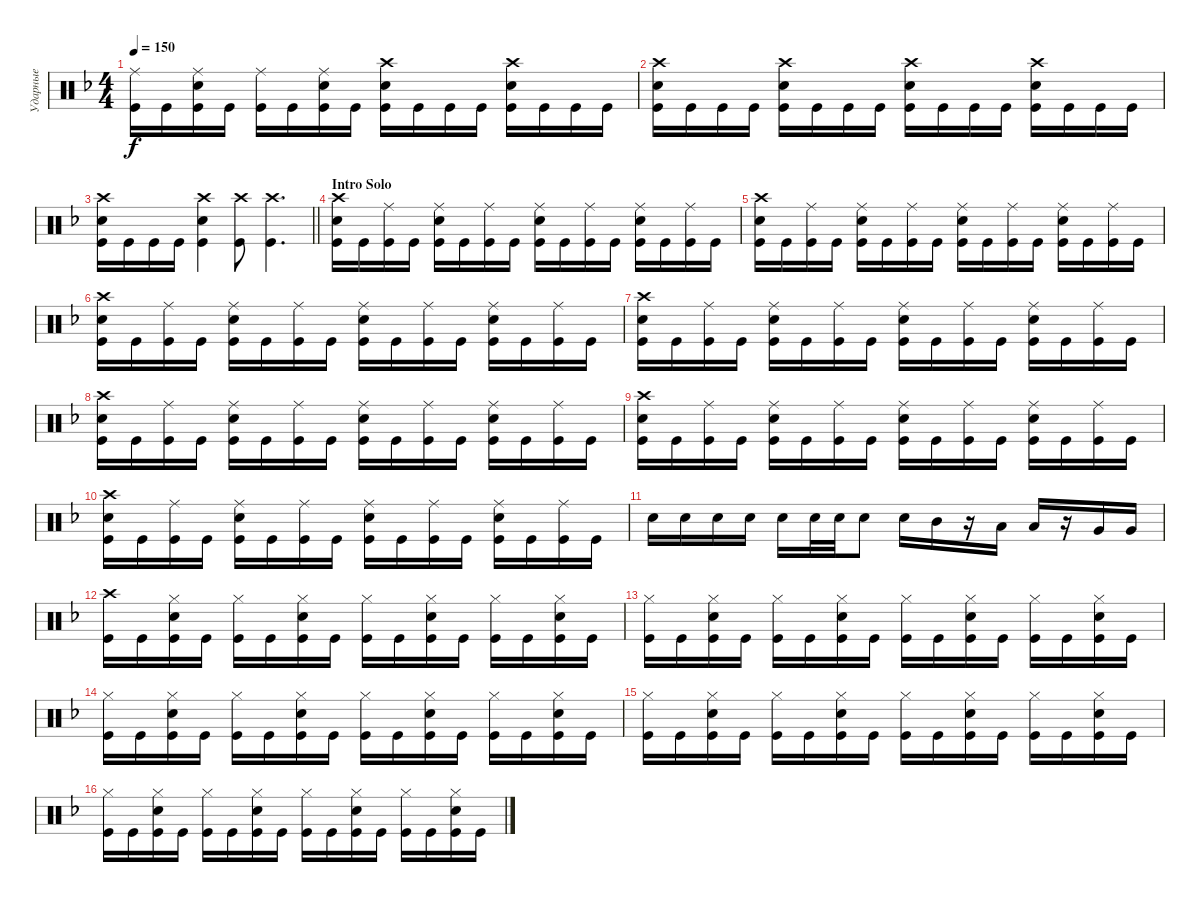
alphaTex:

\track ("Ударные" "Ударные") {instrument percussion}
\staff {score}
\articulation defaults
\ts (4 4)
\tempo 150
\clef neutral
\ks dminor
("Kick (hit)" "Ride (middle)").16{dy f} "Kick (hit)".16 ("Kick (hit)" "Snare (hit) 2" "Ride (middle)").16 "Kick (hit)".16 ("Kick (hit)" "Ride (middle)").16 "Kick (hit)".16 ("Kick (hit)" "Snare (hit) 2" "Ride (middle)").16 "Kick (hit)".16 ("Kick (hit)" "Snare (hit) 2" "Crash high (hit)").16 "Kick (hit)".16 "Kick (hit)".16 "Kick (hit)".16 ("Kick (hit)" "Crash high (hit)" "Snare (hit) 2").16 "Kick (hit)".16 "Kick (hit)".16 "Kick (hit)".16 |
("Kick (hit)" "Snare (hit) 2" "Crash high (hit)").16 "Kick (hit)".16 "Kick (hit)".16 "Kick (hit)".16 ("Kick (hit)" "Crash high (hit)" "Snare (hit) 2").16 "Kick (hit)".16 "Kick (hit)".16 "Kick (hit)".16 ("Kick (hit)" "Snare (hit) 2" "Crash high (hit)").16 "Kick (hit)".16 "Kick (hit)".16 "Kick (hit)".16 ("Kick (hit)" "Crash high (hit)" "Snare (hit) 2").16 "Kick (hit)".16 "Kick (hit)".16 "Kick (hit)".16 |
\barLineRight lightlight
("Kick (hit)" "Snare (hit) 2" "Crash high (hit)").16 "Kick (hit)".16 "Kick (hit)".16 "Kick (hit)".16 ("Kick (hit)" "Crash high (hit)" "Snare (hit) 2").4 ("Kick (hit)" "Crash high (hit)").8 ("Kick (hit)" "Crash high (hit)").4{d} |
\section ("" "Intro Solo")
("Kick (hit)" "Snare (hit) 2" "Crash high (hit)").16 "Kick (hit)".16 ("Ride (middle)" "Kick (hit)").16 "Kick (hit)".16 ("Kick (hit)" "Ride (middle)" "Snare (hit) 2").16 "Kick (hit)".16 ("Kick (hit)" "Ride (middle)").16 "Kick (hit)".16 ("Kick (hit)" "Snare (hit) 2" "Ride (middle)").16 "Kick (hit)".16 ("Ride (middle)" "Kick (hit)").16 "Kick (hit)".16 ("Kick (hit)" "Ride (middle)" "Snare (hit) 2").16 "Kick (hit)".16 ("Kick (hit)" "Ride (middle)").16 "Kick (hit)".16 |
("Kick (hit)" "Snare (hit) 2" "Crash high (hit)").16 "Kick (hit)".16 ("Ride (middle)" "Kick (hit)").16 "Kick (hit)".16 ("Kick (hit)" "Ride (middle)" "Snare (hit) 2").16 "Kick (hit)".16 ("Kick (hit)" "Ride (middle)").16 "Kick (hit)".16 ("Kick (hit)" "Snare (hit) 2" "Ride (middle)").16 "Kick (hit)".16 ("Ride (middle)" "Kick (hit)").16 "Kick (hit)".16 ("Kick (hit)" "Ride (middle)" "Snare (hit) 2").16 "Kick (hit)".16 ("Kick (hit)" "Ride (middle)").16 "Kick (hit)".16 |
("Kick (hit)" "Snare (hit) 2" "Crash high (hit)").16 "Kick (hit)".16 ("Ride (middle)" "Kick (hit)").16 "Kick (hit)".16 ("Kick (hit)" "Ride (middle)" "Snare (hit) 2").16 "Kick (hit)".16 ("Kick (hit)" "Ride (middle)").16 "Kick (hit)".16 ("Kick (hit)" "Snare (hit) 2" "Ride (middle)").16 "Kick (hit)".16 ("Ride (middle)" "Kick (hit)").16 "Kick (hit)".16 ("Kick (hit)" "Ride (middle)" "Snare (hit) 2").16 "Kick (hit)".16 ("Kick (hit)" "Ride (middle)").16 "Kick (hit)".16 |
("Kick (hit)" "Snare (hit) 2" "Crash high (hit)").16 "Kick (hit)".16 ("Ride (middle)" "Kick (hit)").16 "Kick (hit)".16 ("Kick (hit)" "Ride (middle)" "Snare (hit) 2").16 "Kick (hit)".16 ("Kick (hit)" "Ride (middle)").16 "Kick (hit)".16 ("Kick (hit)" "Snare (hit) 2" "Ride (middle)").16 "Kick (hit)".16 ("Ride (middle)" "Kick (hit)").16 "Kick (hit)".16 ("Kick (hit)" "Ride (middle)" "Snare (hit) 2").16 "Kick (hit)".16 ("Kick (hit)" "Ride (middle)").16 "Kick (hit)".16 |
("Kick (hit)" "Snare (hit) 2" "Crash high (hit)").16 "Kick (hit)".16 ("Ride (middle)" "Kick (hit)").16 "Kick (hit)".16 ("Kick (hit)" "Ride (middle)" "Snare (hit) 2").16 "Kick (hit)".16 ("Kick (hit)" "Ride (middle)").16 "Kick (hit)".16 ("Kick (hit)" "Snare (hit) 2" "Ride (middle)").16 "Kick (hit)".16 ("Ride (middle)" "Kick (hit)").16 "Kick (hit)".16 ("Kick (hit)" "Ride (middle)" "Snare (hit) 2").16 "Kick (hit)".16 ("Kick (hit)" "Ride (middle)").16 "Kick (hit)".16 |
("Kick (hit)" "Snare (hit) 2" "Crash high (hit)").16 "Kick (hit)".16 ("Ride (middle)" "Kick (hit)").16 "Kick (hit)".16 ("Kick (hit)" "Ride (middle)" "Snare (hit) 2").16 "Kick (hit)".16 ("Kick (hit)" "Ride (middle)").16 "Kick (hit)".16 ("Kick (hit)" "Snare (hit) 2" "Ride (middle)").16 "Kick (hit)".16 ("Ride (middle)" "Kick (hit)").16 "Kick (hit)".16 ("Kick (hit)" "Ride (middle)" "Snare (hit) 2").16 "Kick (hit)".16 ("Kick (hit)" "Ride (middle)").16 "Kick (hit)".16 |
("Kick (hit)" "Snare (hit) 2" "Crash high (hit)").16 "Kick (hit)".16 ("Ride (middle)" "Kick (hit)").16 "Kick (hit)".16 ("Kick (hit)" "Ride (middle)" "Snare (hit) 2").16 "Kick (hit)".16 ("Kick (hit)" "Ride (middle)").16 "Kick (hit)".16 ("Kick (hit)" "Snare (hit) 2" "Ride (middle)").16 "Kick (hit)".16 ("Ride (middle)" "Kick (hit)").16 "Kick (hit)".16 ("Kick (hit)" "Ride (middle)" "Snare (hit) 2").16 "Kick (hit)".16 ("Kick (hit)" "Ride (middle)").16 "Kick (hit)".16 |
"Snare (hit) 2".16 "Snare (hit) 2".16 "Snare (hit) 2".16 "Snare (hit) 2".16 "Snare (hit) 2".16 "Snare (hit) 2".32 "Snare (hit) 2".32 "Snare (hit) 2".8 "Snare (hit) 2".16 "Mid Tom (hit)".16 r.16 "Low Tom (hit)".16 "Low Tom (hit)".16 r.16 "Very Low Tom (hit)".16 "Very Low Tom (hit)".16 |
("Kick (hit)" "Crash high (hit)").16 "Kick (hit)".16 ("Kick (hit)" "Snare (hit) 2" "Hi-Hat (closed)").16 "Kick (hit)".16 ("Kick (hit)" "Hi-Hat (closed)").16 "Kick (hit)".16 ("Kick (hit)" "Snare (hit) 2" "Hi-Hat (closed)").16 "Kick (hit)".16 ("Kick (hit)" "Hi-Hat (closed)").16 "Kick (hit)".16 ("Snare (hit) 2" "Kick (hit)" "Hi-Hat (closed)").16 "Kick (hit)".16 ("Kick (hit)" "Hi-Hat (closed)").16 "Kick (hit)".16 ("Kick (hit)" "Snare (hit) 2" "Hi-Hat (closed)").16 "Kick (hit)".16 |
("Kick (hit)" "Hi-Hat (closed)").16 "Kick (hit)".16 ("Kick (hit)" "Snare (hit) 2" "Hi-Hat (closed)").16 "Kick (hit)".16 ("Kick (hit)" "Hi-Hat (closed)").16 "Kick (hit)".16 ("Kick (hit)" "Snare (hit) 2" "Hi-Hat (closed)").16 "Kick (hit)".16 ("Kick (hit)" "Hi-Hat (closed)").16 "Kick (hit)".16 ("Snare (hit) 2" "Kick (hit)" "Hi-Hat (closed)").16 "Kick (hit)".16 ("Kick (hit)" "Hi-Hat (closed)").16 "Kick (hit)".16 ("Kick (hit)" "Snare (hit) 2" "Hi-Hat (closed)").16 "Kick (hit)".16 |
("Kick (hit)" "Hi-Hat (closed)").16 "Kick (hit)".16 ("Kick (hit)" "Snare (hit) 2" "Hi-Hat (closed)").16 "Kick (hit)".16 ("Kick (hit)" "Hi-Hat (closed)").16 "Kick (hit)".16 ("Kick (hit)" "Snare (hit) 2" "Hi-Hat (closed)").16 "Kick (hit)".16 ("Kick (hit)" "Hi-Hat (closed)").16 "Kick (hit)".16 ("Snare (hit) 2" "Kick (hit)" "Hi-Hat (closed)").16 "Kick (hit)".16 ("Kick (hit)" "Hi-Hat (closed)").16 "Kick (hit)".16 ("Kick (hit)" "Snare (hit) 2" "Hi-Hat (closed)").16 "Kick (hit)".16 |
("Kick (hit)" "Hi-Hat (closed)").16 "Kick (hit)".16 ("Kick (hit)" "Snare (hit) 2" "Hi-Hat (closed)").16 "Kick (hit)".16 ("Kick (hit)" "Hi-Hat (closed)").16 "Kick (hit)".16 ("Kick (hit)" "Snare (hit) 2" "Hi-Hat (closed)").16 "Kick (hit)".16 ("Kick (hit)" "Hi-Hat (closed)").16 "Kick (hit)".16 ("Snare (hit) 2" "Kick (hit)" "Hi-Hat (closed)").16 "Kick (hit)".16 ("Kick (hit)" "Hi-Hat (closed)").16 "Kick (hit)".16 ("Kick (hit)" "Snare (hit) 2" "Hi-Hat (closed)").16 "Kick (hit)".16 |
("Kick (hit)" "Hi-Hat (closed)").16 "Kick (hit)".16 ("Kick (hit)" "Snare (hit) 2" "Hi-Hat (closed)").16 "Kick (hit)".16 ("Kick (hit)" "Hi-Hat (closed)").16 "Kick (hit)".16 ("Kick (hit)" "Snare (hit) 2" "Hi-Hat (closed)").16 "Kick (hit)".16 ("Kick (hit)" "Hi-Hat (closed)").16 "Kick (hit)".16 ("Snare (hit) 2" "Kick (hit)" "Hi-Hat (closed)").16 "Kick (hit)".16 ("Kick (hit)" "Hi-Hat (closed)").16 "Kick (hit)".16 ("Kick (hit)" "Snare (hit) 2" "Hi-Hat (closed)").16 "Kick (hit)".16
